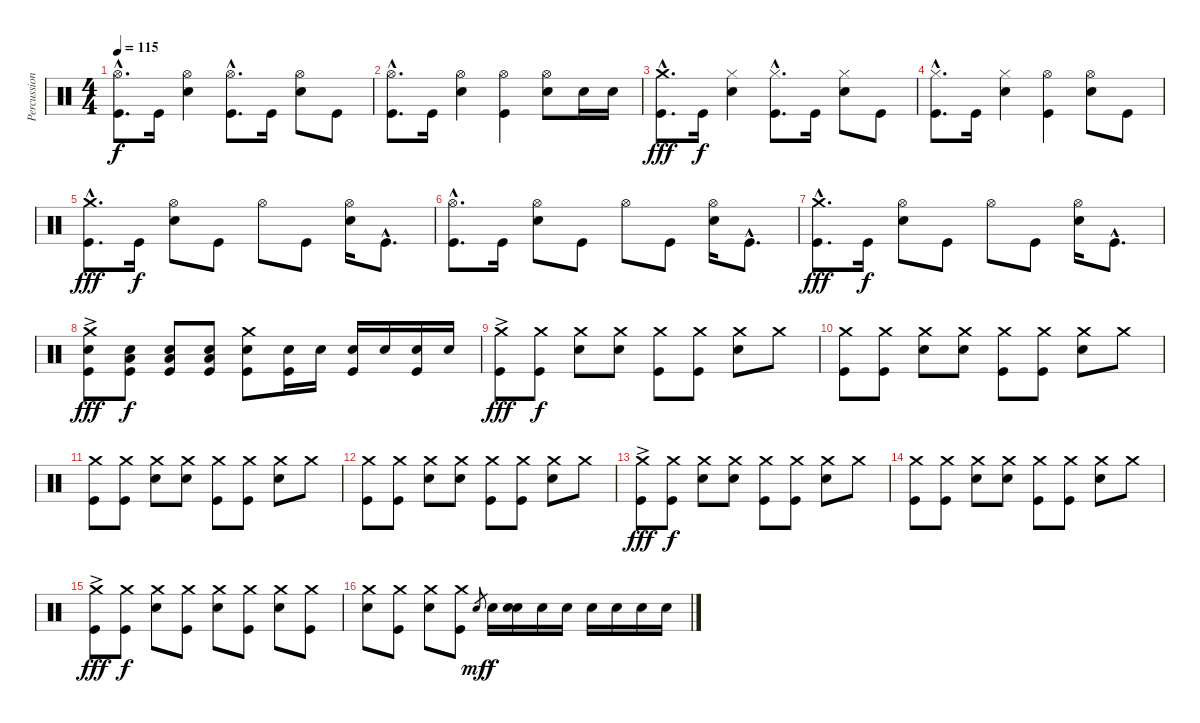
\track ("Percussion" "Percussion") {instrument percussion}
\staff {score}
\articulation defaults
\ts (4 4)
\tempo 115
\clef neutral
\ks c
("Hi-Hat (open)"{hac} "Kick (hit)"{hac}).8{d dy f} "Kick (hit)".16 ("Hi-Hat (open)" "Snare (hit) 2").4 ("Hi-Hat (open)"{hac} "Kick (hit)"{hac}).8{d} "Kick (hit)".16 ("Hi-Hat (open)" "Snare (hit) 2").8 "Kick (hit)".8 |
("Hi-Hat (open)"{hac} "Kick (hit)"{hac}).8{d} "Kick (hit)".16 ("Hi-Hat (open)" "Snare (hit) 2").4 ("Hi-Hat (open)" "Kick (hit)").4 ("Hi-Hat (open)" "Snare (hit) 2").8 "Snare (hit) 2".16 "Snare (hit) 2".16 |
("Crash medium (hit)"{hac} "Kick (hit)"{hac}).8{d dy fff} "Kick (hit)".16{dy f} ("Hi-Hat (closed)" "Snare (hit) 2").4 ("Hi-Hat (closed)"{hac} "Kick (hit)"{hac}).8{d} "Kick (hit)".16 ("Hi-Hat (closed)" "Snare (hit) 2").8 "Kick (hit)".8 |
("Hi-Hat (closed)"{hac} "Kick (hit)"{hac}).8{d} "Kick (hit)".16 ("Hi-Hat (closed)" "Snare (hit) 2").4 ("Hi-Hat (open)" "Kick (hit)").4 ("Hi-Hat (open)" "Snare (hit) 2").8 "Kick (hit)".8 |
("Crash medium (hit)"{hac} "Kick (hit)"{hac}).8{d dy fff} "Kick (hit)".16{dy f} ("Hi-Hat (open)" "Snare (hit) 2").8 "Kick (hit)".8 "Hi-Hat (open)".8 "Kick (hit)".8 ("Hi-Hat (open)" "Snare (hit) 2").16 "Kick (hit)"{hac}.8{d} |
("Hi-Hat (open)"{hac} "Kick (hit)"{hac}).8{d} "Kick (hit)".16 ("Hi-Hat (open)" "Snare (hit) 2").8 "Kick (hit)".8 "Hi-Hat (open)".8 "Kick (hit)".8 ("Hi-Hat (open)" "Snare (hit) 2").16 "Kick (hit)"{hac}.8{d} |
("Crash medium (hit)"{hac} "Kick (hit)"{hac}).8{d dy fff} "Kick (hit)".16{dy f} ("Hi-Hat (open)" "Snare (hit) 2").8 "Kick (hit)".8 "Hi-Hat (open)".8 "Kick (hit)".8 ("Hi-Hat (open)" "Snare (hit) 2").16 "Kick (hit)"{hac}.8{d} |
("Crash medium (hit)"{ac} "Snare (hit) 2" "Kick (hit)").8{dy fff volume 16} ("Snare (hit) 2" "Low Floor Tom (hit)" "Kick (hit)").8{dy f} ("Snare (hit) 2" "Low Floor Tom (hit)" "Kick (hit)").8 ("Snare (hit) 2" "Low Floor Tom (hit)" "Kick (hit)").8 ("Crash medium (hit)" "Snare (hit) 2" "Kick (hit)").8 ("Snare (hit) 2" "Kick (hit)").16 "Snare (hit) 2".16 ("Snare (hit) 2" "Kick (hit)").16 "Snare (hit) 2".16 ("Snare (hit) 2" "Kick (hit)").16 "Snare (hit) 2".16 |
("Crash medium (hit)"{ac} "Kick (hit)").8{dy fff volume 13} ("Crash medium (hit)" "Kick (hit)").8{dy f} ("Crash medium (hit)" "Snare (hit) 2").8 ("Crash medium (hit)" "Snare (hit) 2").8 ("Crash medium (hit)" "Kick (hit)").8 ("Crash medium (hit)" "Kick (hit)").8 ("Crash medium (hit)" "Snare (hit) 2").8 "Crash medium (hit)".8 |
("Crash medium (hit)" "Kick (hit)").8 ("Crash medium (hit)" "Kick (hit)").8 ("Crash medium (hit)" "Snare (hit) 2").8 ("Crash medium (hit)" "Snare (hit) 2").8 ("Crash medium (hit)" "Kick (hit)").8 ("Crash medium (hit)" "Kick (hit)").8 ("Crash medium (hit)" "Snare (hit) 2").8 "Crash medium (hit)".8 |
("Crash medium (hit)" "Kick (hit)").8 ("Crash medium (hit)" "Kick (hit)").8 ("Crash medium (hit)" "Snare (hit) 2").8 ("Crash medium (hit)" "Snare (hit) 2").8 ("Crash medium (hit)" "Kick (hit)").8 ("Crash medium (hit)" "Kick (hit)").8 ("Crash medium (hit)" "Snare (hit) 2").8 "Crash medium (hit)".8 |
("Crash medium (hit)" "Kick (hit)").8 ("Crash medium (hit)" "Kick (hit)").8 ("Crash medium (hit)" "Snare (hit) 2").8 ("Crash medium (hit)" "Snare (hit) 2").8 ("Crash medium (hit)" "Kick (hit)").8 ("Crash medium (hit)" "Kick (hit)").8 ("Crash medium (hit)" "Snare (hit) 2").8 "Crash medium (hit)".8 |
("Crash medium (hit)"{ac} "Kick (hit)").8{dy fff} ("Crash medium (hit)" "Kick (hit)").8{dy f} ("Crash medium (hit)" "Snare (hit) 2").8 ("Crash medium (hit)" "Snare (hit) 2").8 ("Crash medium (hit)" "Kick (hit)").8 ("Crash medium (hit)" "Kick (hit)").8 ("Crash medium (hit)" "Snare (hit) 2").8 "Crash medium (hit)".8 |
("Crash medium (hit)" "Kick (hit)").8 ("Crash medium (hit)" "Kick (hit)").8 ("Crash medium (hit)" "Snare (hit) 2").8 ("Crash medium (hit)" "Snare (hit) 2").8 ("Crash medium (hit)" "Kick (hit)").8 ("Crash medium (hit)" "Kick (hit)").8 ("Crash medium (hit)" "Snare (hit) 2").8 "Crash medium (hit)".8 |
("Crash medium (hit)"{ac} "Kick (hit)").8{dy fff} ("Crash medium (hit)" "Kick (hit)").8{dy f} ("Crash medium (hit)" "Snare (hit) 2").8 ("Crash medium (hit)" "Kick (hit)").8 ("Crash medium (hit)" "Snare (hit) 2").8 ("Crash medium (hit)" "Kick (hit)").8 ("Crash medium (hit)" "Snare (hit) 2").8 ("Crash medium (hit)" "Kick (hit)").8 |
("Crash medium (hit)" "Snare (hit) 2").8 ("Crash medium (hit)" "Kick (hit)").8 ("Crash medium (hit)" "Snare (hit) 2").8 ("Crash medium (hit)" "Kick (hit)").8 "Snare (hit) 2".8{gr dy mf} "Snare (hit) 2".16{dy f} ("Snare (hit) 2" "Snare (hit) 2").16 "Snare (hit) 2".16 "Snare (hit) 2".16 "Snare (hit) 2".16 "Snare (hit) 2".16 "Snare (hit) 2".16 "Snare (hit) 2".16
